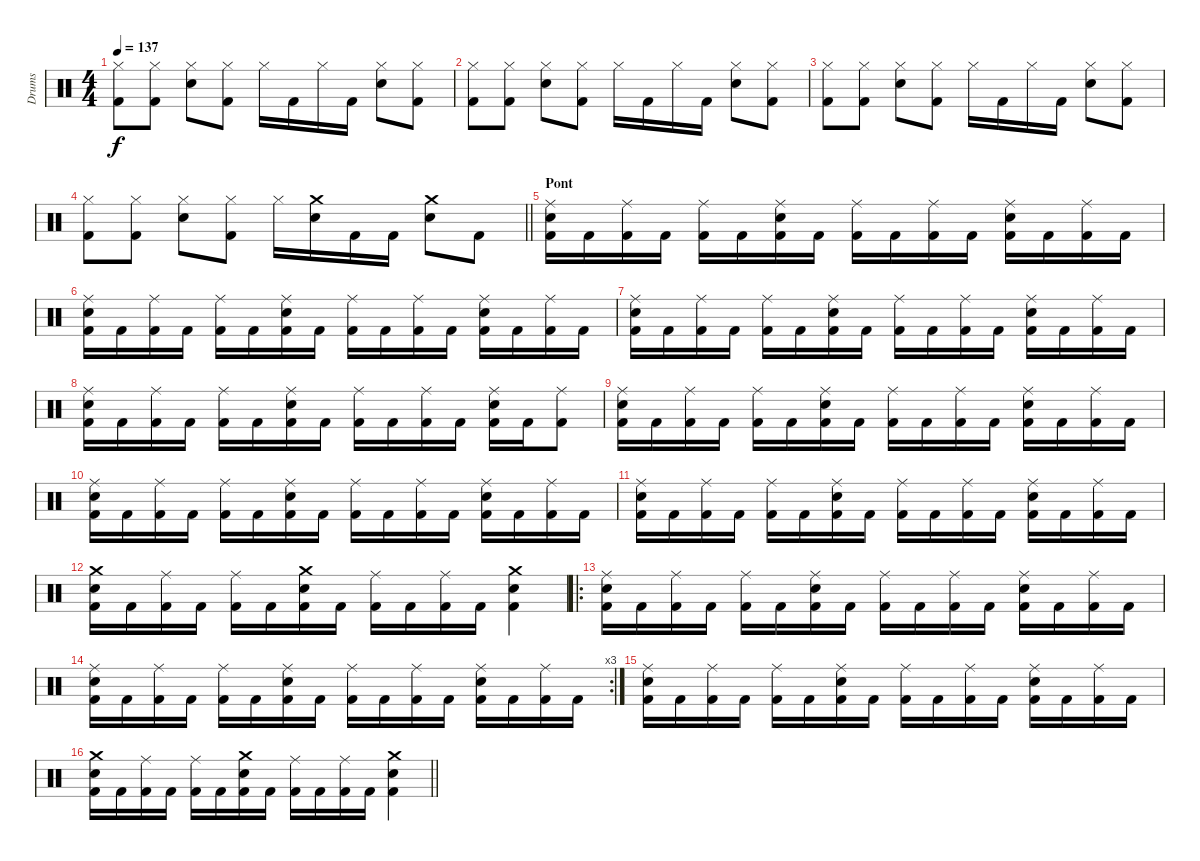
\track ("Drums" "Drums") {instrument percussion}
\staff {score}
\articulation defaults
\ts (4 4)
\tempo 137
\clef neutral
\ks c
("Hi-Hat (closed)" "Kick (hit) 2").8{dy f} ("Hi-Hat (closed)" "Kick (hit) 2").8 ("Hi-Hat (closed)" "Electric Snare (hit)").8 ("Hi-Hat (closed)" "Kick (hit) 2").8 "Hi-Hat (closed)".16 "Kick (hit) 2".16 "Hi-Hat (closed)".16 "Kick (hit) 2".16 ("Hi-Hat (closed)" "Electric Snare (hit)").8 ("Hi-Hat (closed)" "Kick (hit) 2").8 |
("Hi-Hat (closed)" "Kick (hit) 2").8 ("Hi-Hat (closed)" "Kick (hit) 2").8 ("Hi-Hat (closed)" "Electric Snare (hit)").8 ("Hi-Hat (closed)" "Kick (hit) 2").8 "Hi-Hat (closed)".16 "Kick (hit) 2".16 "Hi-Hat (closed)".16 "Kick (hit) 2".16 ("Hi-Hat (closed)" "Electric Snare (hit)").8 ("Hi-Hat (closed)" "Kick (hit) 2").8 |
("Hi-Hat (closed)" "Kick (hit) 2").8 ("Hi-Hat (closed)" "Kick (hit) 2").8 ("Hi-Hat (closed)" "Electric Snare (hit)").8 ("Hi-Hat (closed)" "Kick (hit) 2").8 "Hi-Hat (closed)".16 "Kick (hit) 2".16 "Hi-Hat (closed)".16 "Kick (hit) 2".16 ("Hi-Hat (closed)" "Electric Snare (hit)").8 ("Hi-Hat (closed)" "Kick (hit) 2").8 |
\barLineRight lightlight
("Hi-Hat (closed)" "Kick (hit) 2").8 ("Hi-Hat (closed)" "Kick (hit) 2").8 ("Hi-Hat (closed)" "Electric Snare (hit)").8 ("Hi-Hat (closed)" "Kick (hit) 2").8 "Hi-Hat (closed)".16 ("Crash medium (hit)" "Electric Snare (hit)").16 "Kick (hit) 2".16 "Kick (hit) 2".16 ("Crash medium (hit)" "Electric Snare (hit)").8 "Kick (hit) 2".8 |
\section ("" "Pont")
("Ride (middle)" "Electric Snare (hit)" "Kick (hit) 2").16 "Kick (hit) 2".16 ("Ride (middle)" "Kick (hit) 2").16 "Kick (hit) 2".16 ("Ride (middle)" "Kick (hit) 2").16 "Kick (hit) 2".16 ("Ride (middle)" "Electric Snare (hit)" "Kick (hit) 2").16 "Kick (hit) 2".16 ("Ride (middle)" "Kick (hit) 2").16 "Kick (hit) 2".16 ("Ride (middle)" "Kick (hit) 2").16 "Kick (hit) 2".16 ("Ride (middle)" "Electric Snare (hit)" "Kick (hit) 2").16 "Kick (hit) 2".16 ("Ride (middle)" "Kick (hit) 2").16 "Kick (hit) 2".16 |
("Ride (middle)" "Electric Snare (hit)" "Kick (hit) 2").16 "Kick (hit) 2".16 ("Ride (middle)" "Kick (hit) 2").16 "Kick (hit) 2".16 ("Ride (middle)" "Kick (hit) 2").16 "Kick (hit) 2".16 ("Ride (middle)" "Electric Snare (hit)" "Kick (hit) 2").16 "Kick (hit) 2".16 ("Ride (middle)" "Kick (hit) 2").16 "Kick (hit) 2".16 ("Ride (middle)" "Kick (hit) 2").16 "Kick (hit) 2".16 ("Ride (middle)" "Electric Snare (hit)" "Kick (hit) 2").16 "Kick (hit) 2".16 ("Ride (middle)" "Kick (hit) 2").16 "Kick (hit) 2".16 |
("Ride (middle)" "Electric Snare (hit)" "Kick (hit) 2").16 "Kick (hit) 2".16 ("Ride (middle)" "Kick (hit) 2").16 "Kick (hit) 2".16 ("Ride (middle)" "Kick (hit) 2").16 "Kick (hit) 2".16 ("Ride (middle)" "Electric Snare (hit)" "Kick (hit) 2").16 "Kick (hit) 2".16 ("Ride (middle)" "Kick (hit) 2").16 "Kick (hit) 2".16 ("Ride (middle)" "Kick (hit) 2").16 "Kick (hit) 2".16 ("Ride (middle)" "Electric Snare (hit)" "Kick (hit) 2").16 "Kick (hit) 2".16 ("Ride (middle)" "Kick (hit) 2").16 "Kick (hit) 2".16 |
("Ride (middle)" "Electric Snare (hit)" "Kick (hit) 2").16 "Kick (hit) 2".16 ("Ride (middle)" "Kick (hit) 2").16 "Kick (hit) 2".16 ("Ride (middle)" "Kick (hit) 2").16 "Kick (hit) 2".16 ("Ride (middle)" "Electric Snare (hit)" "Kick (hit) 2").16 "Kick (hit) 2".16 ("Ride (middle)" "Kick (hit) 2").16 "Kick (hit) 2".16 ("Ride (middle)" "Kick (hit) 2").16 "Kick (hit) 2".16 ("Ride (middle)" "Electric Snare (hit)" "Kick (hit) 2").16 "Kick (hit) 2".16 ("Ride (middle)" "Kick (hit) 2").8 |
("Ride (middle)" "Electric Snare (hit)" "Kick (hit) 2").16 "Kick (hit) 2".16 ("Ride (middle)" "Kick (hit) 2").16 "Kick (hit) 2".16 ("Ride (middle)" "Kick (hit) 2").16 "Kick (hit) 2".16 ("Ride (middle)" "Electric Snare (hit)" "Kick (hit) 2").16 "Kick (hit) 2".16 ("Ride (middle)" "Kick (hit) 2").16 "Kick (hit) 2".16 ("Ride (middle)" "Kick (hit) 2").16 "Kick (hit) 2".16 ("Ride (middle)" "Electric Snare (hit)" "Kick (hit) 2").16 "Kick (hit) 2".16 ("Ride (middle)" "Kick (hit) 2").16 "Kick (hit) 2".16 |
("Ride (middle)" "Electric Snare (hit)" "Kick (hit) 2").16 "Kick (hit) 2".16 ("Ride (middle)" "Kick (hit) 2").16 "Kick (hit) 2".16 ("Ride (middle)" "Kick (hit) 2").16 "Kick (hit) 2".16 ("Ride (middle)" "Electric Snare (hit)" "Kick (hit) 2").16 "Kick (hit) 2".16 ("Ride (middle)" "Kick (hit) 2").16 "Kick (hit) 2".16 ("Ride (middle)" "Kick (hit) 2").16 "Kick (hit) 2".16 ("Ride (middle)" "Electric Snare (hit)" "Kick (hit) 2").16 "Kick (hit) 2".16 ("Ride (middle)" "Kick (hit) 2").16 "Kick (hit) 2".16 |
("Ride (middle)" "Electric Snare (hit)" "Kick (hit) 2").16 "Kick (hit) 2".16 ("Ride (middle)" "Kick (hit) 2").16 "Kick (hit) 2".16 ("Ride (middle)" "Kick (hit) 2").16 "Kick (hit) 2".16 ("Ride (middle)" "Electric Snare (hit)" "Kick (hit) 2").16 "Kick (hit) 2".16 ("Ride (middle)" "Kick (hit) 2").16 "Kick (hit) 2".16 ("Ride (middle)" "Kick (hit) 2").16 "Kick (hit) 2".16 ("Ride (middle)" "Electric Snare (hit)" "Kick (hit) 2").16 "Kick (hit) 2".16 ("Ride (middle)" "Kick (hit) 2").16 "Kick (hit) 2".16 |
("Crash medium (hit)" "Electric Snare (hit)" "Kick (hit) 2").16 "Kick (hit) 2".16 ("Ride (middle)" "Kick (hit) 2").16 "Kick (hit) 2".16 ("Ride (middle)" "Kick (hit) 2").16 "Kick (hit) 2".16 ("Crash medium (hit)" "Electric Snare (hit)" "Kick (hit) 2").16 "Kick (hit) 2".16 ("Ride (middle)" "Kick (hit) 2").16 "Kick (hit) 2".16 ("Ride (middle)" "Kick (hit) 2").16 "Kick (hit) 2".16 ("Crash medium (hit)" "Electric Snare (hit)" "Kick (hit) 2").4 |
\ro
("Ride (middle)" "Electric Snare (hit)" "Kick (hit) 2").16 "Kick (hit) 2".16 ("Ride (middle)" "Kick (hit) 2").16 "Kick (hit) 2".16 ("Ride (middle)" "Kick (hit) 2").16 "Kick (hit) 2".16 ("Ride (middle)" "Electric Snare (hit)" "Kick (hit) 2").16 "Kick (hit) 2".16 ("Ride (middle)" "Kick (hit) 2").16 "Kick (hit) 2".16 ("Ride (middle)" "Kick (hit) 2").16 "Kick (hit) 2".16 ("Ride (middle)" "Electric Snare (hit)" "Kick (hit) 2").16 "Kick (hit) 2".16 ("Ride (middle)" "Kick (hit) 2").16 "Kick (hit) 2".16 |
\rc 3
("Ride (middle)" "Electric Snare (hit)" "Kick (hit) 2").16 "Kick (hit) 2".16 ("Ride (middle)" "Kick (hit) 2").16 "Kick (hit) 2".16 ("Ride (middle)" "Kick (hit) 2").16 "Kick (hit) 2".16 ("Ride (middle)" "Electric Snare (hit)" "Kick (hit) 2").16 "Kick (hit) 2".16 ("Ride (middle)" "Kick (hit) 2").16 "Kick (hit) 2".16 ("Ride (middle)" "Kick (hit) 2").16 "Kick (hit) 2".16 ("Ride (middle)" "Electric Snare (hit)" "Kick (hit) 2").16 "Kick (hit) 2".16 ("Ride (middle)" "Kick (hit) 2").16 "Kick (hit) 2".16 |
("Ride (middle)" "Electric Snare (hit)" "Kick (hit) 2").16 "Kick (hit) 2".16 ("Ride (middle)" "Kick (hit) 2").16 "Kick (hit) 2".16 ("Ride (middle)" "Kick (hit) 2").16 "Kick (hit) 2".16 ("Ride (middle)" "Electric Snare (hit)" "Kick (hit) 2").16 "Kick (hit) 2".16 ("Ride (middle)" "Kick (hit) 2").16 "Kick (hit) 2".16 ("Ride (middle)" "Kick (hit) 2").16 "Kick (hit) 2".16 ("Ride (middle)" "Electric Snare (hit)" "Kick (hit) 2").16 "Kick (hit) 2".16 ("Ride (middle)" "Kick (hit) 2").16 "Kick (hit) 2".16 |
\barLineRight lightlight
("Crash medium (hit)" "Electric Snare (hit)" "Kick (hit) 2").16 "Kick (hit) 2".16 ("Ride (middle)" "Kick (hit) 2").16 "Kick (hit) 2".16 ("Ride (middle)" "Kick (hit) 2").16 "Kick (hit) 2".16 ("Crash medium (hit)" "Electric Snare (hit)" "Kick (hit) 2").16 "Kick (hit) 2".16 ("Ride (middle)" "Kick (hit) 2").16 "Kick (hit) 2".16 ("Ride (middle)" "Kick (hit) 2").16 "Kick (hit) 2".16 ("Crash medium (hit)" "Electric Snare (hit)" "Kick (hit) 2").4
